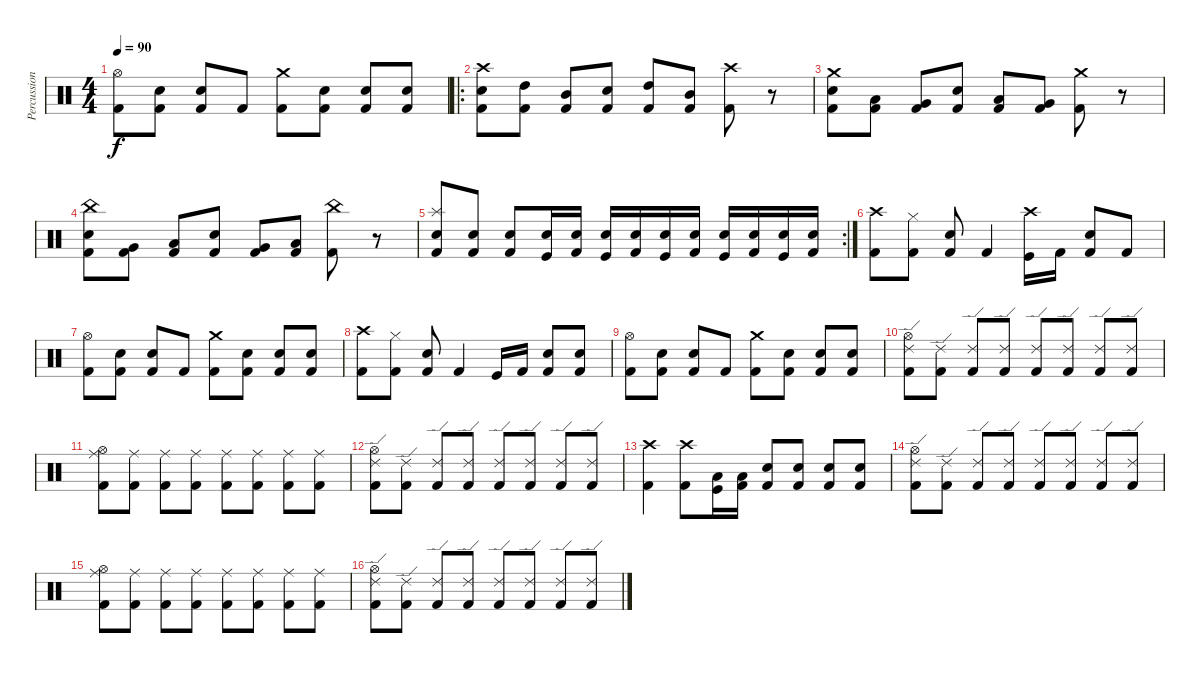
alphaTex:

\track ("Percussion" "Percussion") {instrument percussion}
\staff {score}
\articulation defaults
\ts (4 4)
\tempo 90
\clef neutral
\ks c
("Hi-Hat (open)" "Kick (hit) 2").8{dy f} ("Snare (hit) 2" "Kick (hit) 2").8 ("Snare (hit) 2" "Kick (hit) 2").8 "Kick (hit) 2".8 ("Crash medium (hit)" "Kick (hit) 2").8 ("Snare (hit) 2" "Kick (hit) 2").8 ("Snare (hit) 2" "Kick (hit) 2").8 ("Snare (hit) 2" "Kick (hit) 2").8 |
\ro
("Crash high (hit)" "Snare (hit) 2" "Kick (hit) 2").8 ("High Tom (hit)" "Kick (hit) 2").8 ("Mid Tom (hit)" "Kick (hit) 2").8 ("Snare (hit) 2" "Kick (hit) 2").8 ("High Tom (hit)" "Kick (hit) 2").8 ("Mid Tom (hit)" "Kick (hit) 2").8 ("Crash high (hit)" "Kick (hit) 2").8 r.8 |
("Crash medium (hit)" "Snare (hit) 2" "Kick (hit) 2").8 ("Low Tom (hit)" "Kick (hit) 2").8 ("Very Low Tom (hit)" "Kick (hit) 2").8 ("Snare (hit) 2" "Kick (hit) 2").8 ("Low Tom (hit)" "Kick (hit) 2").8 ("Very Low Tom (hit)" "Kick (hit) 2").8 ("Crash medium (hit)" "Kick (hit) 2").8 r.8 |
("China (hit)" "Snare (hit) 2" "Kick (hit) 2").8 ("Very Low Tom (hit)" "Kick (hit) 2").8 ("Low Floor Tom (hit)" "Kick (hit) 2").8 ("Snare (hit) 2" "Kick (hit) 2").8 ("Very Low Tom (hit)" "Kick (hit) 2").8 ("Low Floor Tom (hit)" "Kick (hit) 2").8 ("China (hit)" "Kick (hit) 2").8 r.8 |
\rc 2
("Splash (hit)" "Kick (hit) 2" "Electric Snare (hit)").8 ("Kick (hit) 2" "Electric Snare (hit)").8 ("Kick (hit) 2" "Electric Snare (hit)").8 ("Kick (hit)" "Electric Snare (hit)").16 ("Kick (hit) 2" "Electric Snare (hit)").16 ("Kick (hit)" "Electric Snare (hit)").16 ("Kick (hit) 2" "Electric Snare (hit)").16 ("Kick (hit)" "Electric Snare (hit)").16 ("Kick (hit) 2" "Electric Snare (hit)").16 ("Kick (hit)" "Electric Snare (hit)").16 ("Kick (hit) 2" "Electric Snare (hit)").16 ("Kick (hit)" "Electric Snare (hit)").16 ("Kick (hit) 2" "Electric Snare (hit)").16 |
("Crash high (hit)" "Kick (hit) 2").8 ("Hi-Hat (closed)" "Kick (hit) 2").8 ("Snare (hit) 2" "Kick (hit) 2").8 "Kick (hit) 2".4 ("Crash high (hit)" "Kick (hit)").16 "Kick (hit) 2".16 ("Snare (hit) 2" "Kick (hit) 2").8 "Kick (hit) 2".8 |
("Hi-Hat (open)" "Kick (hit) 2").8 ("Snare (hit) 2" "Kick (hit) 2").8 ("Snare (hit) 2" "Kick (hit) 2").8 "Kick (hit) 2".8 ("Crash medium (hit)" "Kick (hit) 2").8 ("Snare (hit) 2" "Kick (hit) 2").8 ("Snare (hit) 2" "Kick (hit) 2").8 ("Snare (hit) 2" "Kick (hit) 2").8 |
("Crash high (hit)" "Kick (hit) 2").8 ("Hi-Hat (closed)" "Kick (hit) 2").8 ("Snare (hit) 2" "Kick (hit) 2").8 "Kick (hit) 2".4 "Kick (hit)".16 "Kick (hit) 2".16 ("Snare (hit) 2" "Kick (hit) 2").8 ("Snare (hit) 2" "Kick (hit) 2").8 |
("Hi-Hat (open)" "Kick (hit) 2").8 ("Snare (hit) 2" "Kick (hit) 2").8 ("Snare (hit) 2" "Kick (hit) 2").8 "Kick (hit) 2".8 ("Crash medium (hit)" "Kick (hit) 2").8 ("Snare (hit) 2" "Kick (hit) 2").8 ("Snare (hit) 2" "Kick (hit) 2").8 ("Snare (hit) 2" "Kick (hit) 2").8 |
("Hi-Hat (open)" "Ride (edge) 2" "Kick (hit) 2").8 ("Ride (edge) 2" "Kick (hit) 2").8 ("Ride (edge) 2" "Kick (hit) 2").8 ("Ride (edge) 2" "Kick (hit) 2").8 ("Ride (edge) 2" "Kick (hit) 2").8 ("Ride (edge) 2" "Kick (hit) 2").8 ("Ride (edge) 2" "Kick (hit) 2").8 ("Ride (edge) 2" "Kick (hit) 2").8 |
("Hi-Hat (open)" "Ride (middle)" "Kick (hit) 2").8 ("Ride (middle)" "Kick (hit) 2").8 ("Ride (middle)" "Kick (hit) 2").8 ("Ride (middle)" "Kick (hit) 2").8 ("Ride (middle)" "Kick (hit) 2").8 ("Ride (middle)" "Kick (hit) 2").8 ("Ride (middle)" "Kick (hit) 2").8 ("Ride (middle)" "Kick (hit) 2").8 |
("Hi-Hat (open)" "Ride (edge) 2" "Kick (hit) 2").8 ("Ride (edge) 2" "Kick (hit) 2").8 ("Ride (edge) 2" "Kick (hit) 2").8 ("Ride (edge) 2" "Kick (hit) 2").8 ("Ride (edge) 2" "Kick (hit) 2").8 ("Ride (edge) 2" "Kick (hit) 2").8 ("Ride (edge) 2" "Kick (hit) 2").8 ("Ride (edge) 2" "Kick (hit) 2").8 |
("Crash high (hit)" "Kick (hit) 2").4 ("Crash high (hit)" "Kick (hit) 2").8 ("Low Tom (hit)" "Kick (hit)").16 ("Low Tom (hit)" "Kick (hit) 2").16 ("Snare (hit) 2" "Kick (hit) 2").8 ("Electric Snare (hit)" "Kick (hit) 2").8 ("Electric Snare (hit)" "Kick (hit) 2").8 ("Electric Snare (hit)" "Kick (hit) 2").8 |
("Hi-Hat (open)" "Ride (edge) 2" "Kick (hit) 2").8 ("Ride (edge) 2" "Kick (hit) 2").8 ("Ride (edge) 2" "Kick (hit) 2").8 ("Ride (edge) 2" "Kick (hit) 2").8 ("Ride (edge) 2" "Kick (hit) 2").8 ("Ride (edge) 2" "Kick (hit) 2").8 ("Ride (edge) 2" "Kick (hit) 2").8 ("Ride (edge) 2" "Kick (hit) 2").8 |
("Hi-Hat (open)" "Ride (middle)" "Kick (hit) 2").8 ("Ride (middle)" "Kick (hit) 2").8 ("Ride (middle)" "Kick (hit) 2").8 ("Ride (middle)" "Kick (hit) 2").8 ("Ride (middle)" "Kick (hit) 2").8 ("Ride (middle)" "Kick (hit) 2").8 ("Ride (middle)" "Kick (hit) 2").8 ("Ride (middle)" "Kick (hit) 2").8 |
("Hi-Hat (open)" "Ride (edge) 2" "Kick (hit) 2").8 ("Ride (edge) 2" "Kick (hit) 2").8 ("Ride (edge) 2" "Kick (hit) 2").8 ("Ride (edge) 2" "Kick (hit) 2").8 ("Ride (edge) 2" "Kick (hit) 2").8 ("Ride (edge) 2" "Kick (hit) 2").8 ("Ride (edge) 2" "Kick (hit) 2").8 ("Ride (edge) 2" "Kick (hit) 2").8
